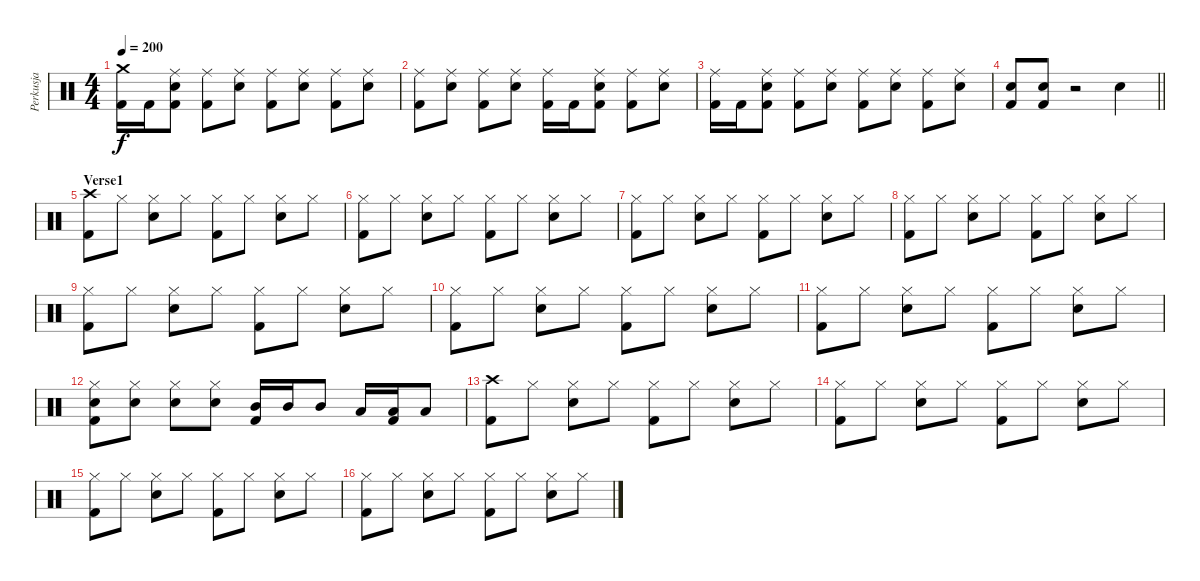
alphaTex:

\track ("Perkusja" "Perkusja") {instrument percussion}
\staff {score}
\articulation defaults
\ts (4 4)
\tempo 200
\clef neutral
\ks c
("Crash medium (hit)" "Kick (hit) 2").16{dy f} "Kick (hit) 2".16 ("Ride (middle)" "Electric Snare (hit)" "Kick (hit) 2").8 ("Ride (middle)" "Kick (hit) 2").8 ("Ride (middle)" "Electric Snare (hit)").8 ("Ride (middle)" "Kick (hit) 2").8 ("Ride (middle)" "Electric Snare (hit)").8 ("Ride (middle)" "Kick (hit) 2").8 ("Ride (middle)" "Electric Snare (hit)").8 |
("Ride (middle)" "Kick (hit) 2").8 ("Ride (middle)" "Electric Snare (hit)").8 ("Ride (middle)" "Kick (hit) 2").8 ("Ride (middle)" "Electric Snare (hit)").8 ("Ride (middle)" "Kick (hit) 2").16 "Kick (hit) 2".16 ("Ride (middle)" "Electric Snare (hit)" "Kick (hit) 2").8 ("Ride (middle)" "Kick (hit) 2").8 ("Ride (middle)" "Electric Snare (hit)").8 |
("Ride (middle)" "Kick (hit) 2").16 "Kick (hit) 2".16 ("Ride (middle)" "Electric Snare (hit)" "Kick (hit) 2").8 ("Ride (middle)" "Kick (hit) 2").8 ("Ride (middle)" "Electric Snare (hit)").8 ("Ride (middle)" "Kick (hit) 2").8 ("Ride (middle)" "Electric Snare (hit)").8 ("Ride (middle)" "Kick (hit) 2").8 ("Ride (middle)" "Electric Snare (hit)").8 |
\barLineRight lightlight
("Electric Snare (hit)" "Kick (hit) 2").8 ("Electric Snare (hit)" "Kick (hit) 2").8 r.2 "Electric Snare (hit)".4 |
\section ("" "Verse1")
("Crash high (hit)" "Kick (hit) 2").8 "Hi-Hat (closed)".8 ("Hi-Hat (closed)" "Electric Snare (hit)").8 "Hi-Hat (closed)".8 ("Hi-Hat (closed)" "Kick (hit) 2").8 "Hi-Hat (closed)".8 ("Hi-Hat (closed)" "Electric Snare (hit)").8 "Hi-Hat (closed)".8 |
("Hi-Hat (closed)" "Kick (hit) 2").8 "Hi-Hat (closed)".8 ("Hi-Hat (closed)" "Electric Snare (hit)").8 "Hi-Hat (closed)".8 ("Hi-Hat (closed)" "Kick (hit) 2").8 "Hi-Hat (closed)".8 ("Hi-Hat (closed)" "Electric Snare (hit)").8 "Hi-Hat (closed)".8 |
("Hi-Hat (closed)" "Kick (hit) 2").8 "Hi-Hat (closed)".8 ("Hi-Hat (closed)" "Electric Snare (hit)").8 "Hi-Hat (closed)".8 ("Hi-Hat (closed)" "Kick (hit) 2").8 "Hi-Hat (closed)".8 ("Hi-Hat (closed)" "Electric Snare (hit)").8 "Hi-Hat (closed)".8 |
("Hi-Hat (closed)" "Kick (hit) 2").8 "Hi-Hat (closed)".8 ("Hi-Hat (closed)" "Electric Snare (hit)").8 "Hi-Hat (closed)".8 ("Hi-Hat (closed)" "Kick (hit) 2").8 "Hi-Hat (closed)".8 ("Hi-Hat (closed)" "Electric Snare (hit)").8 "Hi-Hat (closed)".8 |
("Hi-Hat (closed)" "Kick (hit) 2").8 "Hi-Hat (closed)".8 ("Hi-Hat (closed)" "Electric Snare (hit)").8 "Hi-Hat (closed)".8 ("Hi-Hat (closed)" "Kick (hit) 2").8 "Hi-Hat (closed)".8 ("Hi-Hat (closed)" "Electric Snare (hit)").8 "Hi-Hat (closed)".8 |
("Hi-Hat (closed)" "Kick (hit) 2").8 "Hi-Hat (closed)".8 ("Hi-Hat (closed)" "Electric Snare (hit)").8 "Hi-Hat (closed)".8 ("Hi-Hat (closed)" "Kick (hit) 2").8 "Hi-Hat (closed)".8 ("Hi-Hat (closed)" "Electric Snare (hit)").8 "Hi-Hat (closed)".8 |
("Hi-Hat (closed)" "Kick (hit) 2").8 "Hi-Hat (closed)".8 ("Hi-Hat (closed)" "Electric Snare (hit)").8 "Hi-Hat (closed)".8 ("Hi-Hat (closed)" "Kick (hit) 2").8 "Hi-Hat (closed)".8 ("Hi-Hat (closed)" "Electric Snare (hit)").8 "Hi-Hat (closed)".8 |
("Hi-Hat (closed)" "Electric Snare (hit)" "Kick (hit) 2").8 ("Hi-Hat (closed)" "Electric Snare (hit)").8 ("Hi-Hat (closed)" "Electric Snare (hit)").8 ("Hi-Hat (closed)" "Electric Snare (hit)").8 ("Mid Tom (hit)" "Kick (hit) 2").16 "Mid Tom (hit)".16 "Mid Tom (hit)".8 "Low Tom (hit)".16 ("Low Tom (hit)" "Kick (hit) 2").16 "Low Tom (hit)".8 |
("Crash high (hit)" "Kick (hit) 2").8 "Hi-Hat (closed)".8 ("Hi-Hat (closed)" "Electric Snare (hit)").8 "Hi-Hat (closed)".8 ("Hi-Hat (closed)" "Kick (hit) 2").8 "Hi-Hat (closed)".8 ("Hi-Hat (closed)" "Electric Snare (hit)").8 "Hi-Hat (closed)".8 |
("Hi-Hat (closed)" "Kick (hit) 2").8 "Hi-Hat (closed)".8 ("Hi-Hat (closed)" "Electric Snare (hit)").8 "Hi-Hat (closed)".8 ("Hi-Hat (closed)" "Kick (hit) 2").8 "Hi-Hat (closed)".8 ("Hi-Hat (closed)" "Electric Snare (hit)").8 "Hi-Hat (closed)".8 |
("Hi-Hat (closed)" "Kick (hit) 2").8 "Hi-Hat (closed)".8 ("Hi-Hat (closed)" "Electric Snare (hit)").8 "Hi-Hat (closed)".8 ("Hi-Hat (closed)" "Kick (hit) 2").8 "Hi-Hat (closed)".8 ("Hi-Hat (closed)" "Electric Snare (hit)").8 "Hi-Hat (closed)".8 |
("Hi-Hat (closed)" "Kick (hit) 2").8 "Hi-Hat (closed)".8 ("Hi-Hat (closed)" "Electric Snare (hit)").8 "Hi-Hat (closed)".8 ("Hi-Hat (closed)" "Kick (hit) 2").8 "Hi-Hat (closed)".8 ("Hi-Hat (closed)" "Electric Snare (hit)").8 "Hi-Hat (closed)".8
